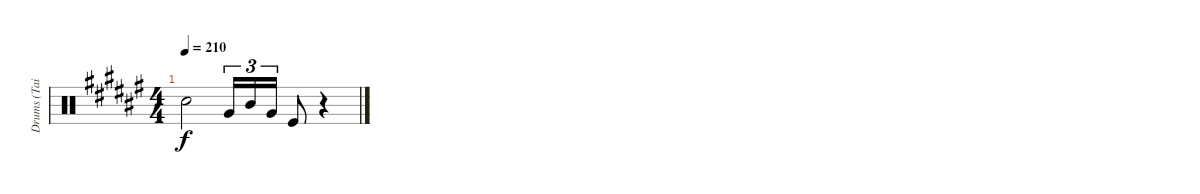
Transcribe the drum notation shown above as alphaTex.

\track ("Drums (Tainaka Ritsu)" "Drums (Tai") {instrument percussion}
\staff {score}
\articulation defaults
\ts (4 4)
\tempo 210
\clef neutral
\ks f# "Snare (hit)"{t}.2{dy f} "Very Low Tom (hit)".16{tu (3 2)} "Mid Tom (hit)".16{tu (3 2)} "Very Low Tom (hit)".16{tu (3 2)} "Kick (hit)".8
r.4
